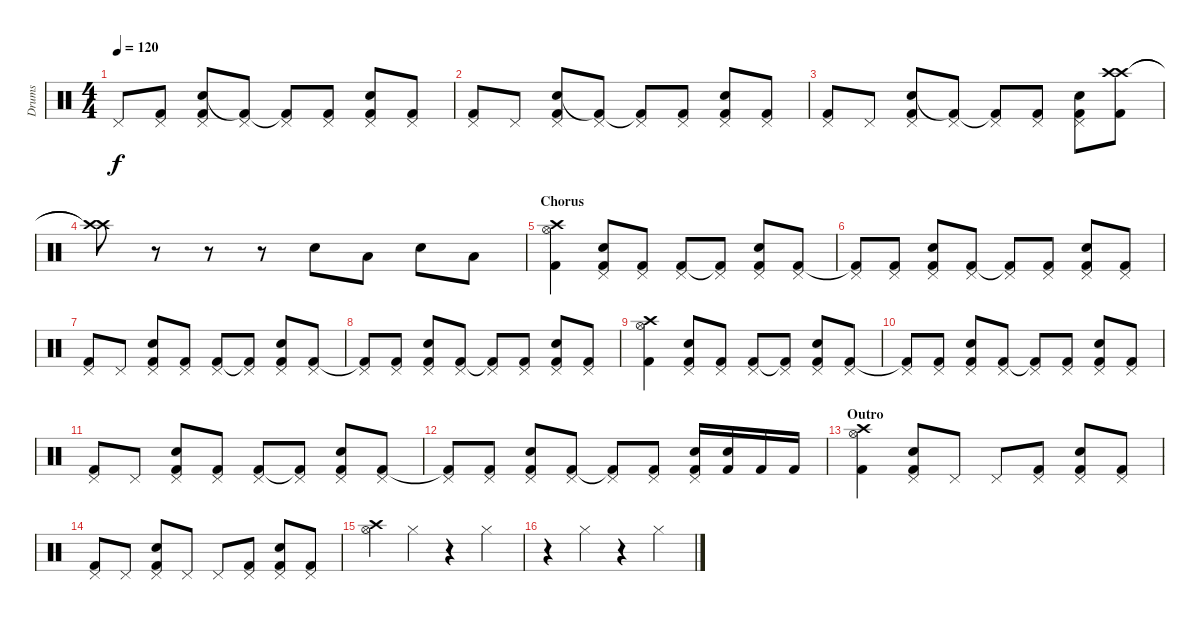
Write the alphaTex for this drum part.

\track ("Drums" "Drums") {instrument percussion}
\staff {score}
\articulation defaults
\ts (4 4)
\tempo 120
\clef neutral
\ks c "Pedal Hi-Hat (hit)".8{dy f}
("Pedal Hi-Hat (hit)" "Kick (hit) 2"{t}).8 ("Pedal Hi-Hat (hit)" "Electric Snare (hit)" "Kick (hit) 2").8 ("Pedal Hi-Hat (hit)" "Kick (hit) 2"{t}).8 ("Pedal Hi-Hat (hit)" "Kick (hit) 2"{t}).8 ("Pedal Hi-Hat (hit)" "Kick (hit) 2").8 ("Pedal Hi-Hat (hit)" "Electric Snare (hit)" "Kick (hit) 2").8 ("Pedal Hi-Hat (hit)" "Kick (hit) 2").8 |
("Pedal Hi-Hat (hit)" "Kick (hit) 2").8 "Pedal Hi-Hat (hit)".8 ("Pedal Hi-Hat (hit)" "Electric Snare (hit)" "Kick (hit) 2").8 ("Pedal Hi-Hat (hit)" "Kick (hit) 2"{t}).8 ("Pedal Hi-Hat (hit)" "Kick (hit) 2"{t}).8 ("Pedal Hi-Hat (hit)" "Kick (hit) 2").8 ("Pedal Hi-Hat (hit)" "Electric Snare (hit)" "Kick (hit) 2").8 ("Pedal Hi-Hat (hit)" "Kick (hit) 2").8 |
("Pedal Hi-Hat (hit)" "Kick (hit) 2").8 "Pedal Hi-Hat (hit)".8 ("Pedal Hi-Hat (hit)" "Electric Snare (hit)" "Kick (hit) 2").8 ("Pedal Hi-Hat (hit)" "Kick (hit) 2"{t}).8 ("Pedal Hi-Hat (hit)" "Kick (hit) 2"{t}).8 ("Pedal Hi-Hat (hit)" "Kick (hit) 2").8 ("Pedal Hi-Hat (hit)" "Electric Snare (hit)" "Kick (hit) 2").8 ("Crash high (hit)" "Crash high (hit)" "Kick (hit) 2").8 |
("Crash high (hit)"{t} "Crash high (hit)"{t}).8 r.8 r.8 r.8 "Electric Snare (hit)".8 "Low Tom (hit)".8 "Electric Snare (hit)".8 "Low Tom (hit)".8 |
\section ("" "Chorus")
("Crash high (hit)" "Hi-Hat (open)" "Kick (hit) 2").4 ("Pedal Hi-Hat (hit)" "Electric Snare (hit)" "Kick (hit) 2").8 ("Pedal Hi-Hat (hit)" "Kick (hit) 2").8 ("Pedal Hi-Hat (hit)" "Kick (hit) 2").8 ("Pedal Hi-Hat (hit)" "Kick (hit) 2"{t}).8 ("Pedal Hi-Hat (hit)" "Electric Snare (hit)" "Kick (hit) 2").8 ("Pedal Hi-Hat (hit)" "Kick (hit) 2").8 |
("Pedal Hi-Hat (hit)" "Kick (hit) 2"{t}).8 ("Pedal Hi-Hat (hit)" "Kick (hit) 2").8 ("Pedal Hi-Hat (hit)" "Electric Snare (hit)" "Kick (hit) 2").8 ("Pedal Hi-Hat (hit)" "Kick (hit) 2").8 ("Pedal Hi-Hat (hit)" "Kick (hit) 2"{t}).8 ("Pedal Hi-Hat (hit)" "Kick (hit) 2").8 ("Pedal Hi-Hat (hit)" "Electric Snare (hit)" "Kick (hit) 2").8 ("Pedal Hi-Hat (hit)" "Kick (hit) 2").8 |
("Pedal Hi-Hat (hit)" "Kick (hit) 2").8 "Pedal Hi-Hat (hit)".8 ("Pedal Hi-Hat (hit)" "Electric Snare (hit)" "Kick (hit) 2").8 ("Pedal Hi-Hat (hit)" "Kick (hit) 2").8 ("Pedal Hi-Hat (hit)" "Kick (hit) 2").8 ("Pedal Hi-Hat (hit)" "Kick (hit) 2"{t}).8 ("Pedal Hi-Hat (hit)" "Electric Snare (hit)" "Kick (hit) 2").8 ("Pedal Hi-Hat (hit)" "Kick (hit) 2").8 |
("Pedal Hi-Hat (hit)" "Kick (hit) 2"{t}).8 ("Pedal Hi-Hat (hit)" "Kick (hit) 2").8 ("Pedal Hi-Hat (hit)" "Electric Snare (hit)" "Kick (hit) 2").8 ("Pedal Hi-Hat (hit)" "Kick (hit) 2").8 ("Pedal Hi-Hat (hit)" "Kick (hit) 2"{t}).8 ("Pedal Hi-Hat (hit)" "Kick (hit) 2").8 ("Pedal Hi-Hat (hit)" "Electric Snare (hit)" "Kick (hit) 2").8 ("Pedal Hi-Hat (hit)" "Kick (hit) 2").8 |
("Crash high (hit)" "Hi-Hat (open)" "Kick (hit) 2").4 ("Pedal Hi-Hat (hit)" "Electric Snare (hit)" "Kick (hit) 2").8 ("Pedal Hi-Hat (hit)" "Kick (hit) 2").8 ("Pedal Hi-Hat (hit)" "Kick (hit) 2").8 ("Pedal Hi-Hat (hit)" "Kick (hit) 2"{t}).8 ("Pedal Hi-Hat (hit)" "Electric Snare (hit)" "Kick (hit) 2").8 ("Pedal Hi-Hat (hit)" "Kick (hit) 2").8 |
("Pedal Hi-Hat (hit)" "Kick (hit) 2"{t}).8 ("Pedal Hi-Hat (hit)" "Kick (hit) 2").8 ("Pedal Hi-Hat (hit)" "Electric Snare (hit)" "Kick (hit) 2").8 ("Pedal Hi-Hat (hit)" "Kick (hit) 2").8 ("Pedal Hi-Hat (hit)" "Kick (hit) 2"{t}).8 ("Pedal Hi-Hat (hit)" "Kick (hit) 2").8 ("Pedal Hi-Hat (hit)" "Electric Snare (hit)" "Kick (hit) 2").8 ("Pedal Hi-Hat (hit)" "Kick (hit) 2").8 |
("Pedal Hi-Hat (hit)" "Kick (hit) 2").8 "Pedal Hi-Hat (hit)".8 ("Pedal Hi-Hat (hit)" "Electric Snare (hit)" "Kick (hit) 2").8 ("Pedal Hi-Hat (hit)" "Kick (hit) 2").8 ("Pedal Hi-Hat (hit)" "Kick (hit) 2").8 ("Pedal Hi-Hat (hit)" "Kick (hit) 2"{t}).8 ("Pedal Hi-Hat (hit)" "Electric Snare (hit)" "Kick (hit) 2").8 ("Pedal Hi-Hat (hit)" "Kick (hit) 2").8 |
("Pedal Hi-Hat (hit)" "Kick (hit) 2"{t}).8 ("Pedal Hi-Hat (hit)" "Kick (hit) 2").8 ("Pedal Hi-Hat (hit)" "Electric Snare (hit)" "Kick (hit) 2").8 ("Pedal Hi-Hat (hit)" "Kick (hit) 2").8 ("Pedal Hi-Hat (hit)" "Kick (hit) 2"{t}).8 ("Pedal Hi-Hat (hit)" "Kick (hit) 2").8 ("Pedal Hi-Hat (hit)" "Electric Snare (hit)" "Kick (hit) 2").16 ("Electric Snare (hit)" "Kick (hit) 2").16 "Kick (hit) 2".16 "Kick (hit) 2".16 |
\section ("" "Outro")
("Crash high (hit)" "Hi-Hat (open)" "Kick (hit) 2").4 ("Pedal Hi-Hat (hit)" "Electric Snare (hit)" "Kick (hit) 2").8 "Pedal Hi-Hat (hit)".8 "Pedal Hi-Hat (hit)".8 ("Pedal Hi-Hat (hit)" "Kick (hit) 2").8 ("Pedal Hi-Hat (hit)" "Electric Snare (hit)" "Kick (hit) 2").8 ("Pedal Hi-Hat (hit)" "Kick (hit) 2").8 |
("Pedal Hi-Hat (hit)" "Kick (hit) 2").8 "Pedal Hi-Hat (hit)".8 ("Pedal Hi-Hat (hit)" "Electric Snare (hit)" "Kick (hit) 2").8 "Pedal Hi-Hat (hit)".8 "Pedal Hi-Hat (hit)".8 ("Pedal Hi-Hat (hit)" "Kick (hit) 2").8 ("Pedal Hi-Hat (hit)" "Electric Snare (hit)" "Kick (hit) 2").8 ("Pedal Hi-Hat (hit)" "Kick (hit) 2").8 |
("Hi-Hat (open)" "Crash high (hit)").4 "Hi-Hat (closed)".4 r.4 "Hi-Hat (closed)".4 |
r.4 "Hi-Hat (closed)".4 r.4 "Hi-Hat (closed)".4
